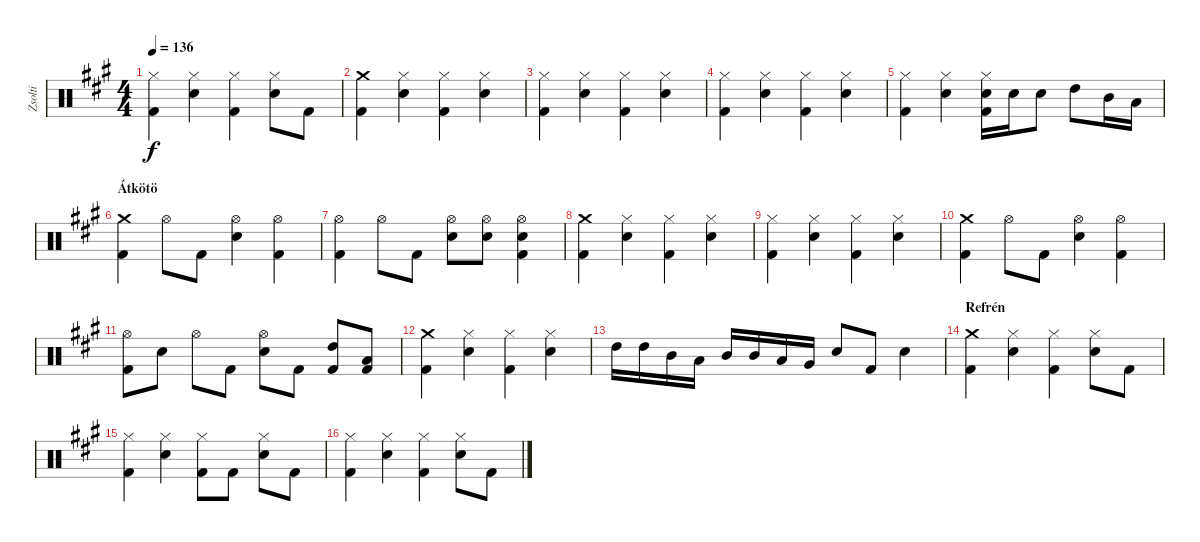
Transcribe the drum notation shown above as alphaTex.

\track ("Zsolti" "Zsolti") {instrument percussion}
\staff {score}
\articulation defaults
\ts (4 4)
\tempo 136
\clef neutral
\ks f#minor
("Hi-Hat (closed)" "Kick (hit) 2").4{dy f} ("Hi-Hat (closed)" "Snare (hit) 2").4 ("Hi-Hat (closed)" "Kick (hit) 2").4 ("Hi-Hat (closed)" "Snare (hit) 2").8 "Kick (hit) 2".8 |
("Crash medium (hit)" "Kick (hit) 2").4 ("Hi-Hat (closed)" "Snare (hit) 2").4 ("Hi-Hat (closed)" "Kick (hit) 2").4 ("Hi-Hat (closed)" "Snare (hit) 2").4 |
("Hi-Hat (closed)" "Kick (hit) 2").4 ("Hi-Hat (closed)" "Snare (hit) 2").4 ("Hi-Hat (closed)" "Kick (hit) 2").4 ("Hi-Hat (closed)" "Snare (hit) 2").4 |
("Hi-Hat (closed)" "Kick (hit) 2").4 ("Hi-Hat (closed)" "Snare (hit) 2").4 ("Hi-Hat (closed)" "Kick (hit) 2").4 ("Hi-Hat (closed)" "Snare (hit) 2").4 |
("Hi-Hat (closed)" "Kick (hit) 2").4 ("Hi-Hat (closed)" "Snare (hit) 2").4 ("Hi-Hat (closed)" "Snare (hit) 2" "Kick (hit) 2").16 "Snare (hit) 2".16 "Snare (hit) 2".8 "High Tom (hit)".8 "Mid Tom (hit)".16 "Low Tom (hit)".16 |
\section ("" "Átkötö")
("Crash medium (hit)" "Kick (hit) 2").4 "Hi-Hat (open)".8 "Kick (hit) 2".8 ("Hi-Hat (open)" "Snare (hit) 2").4 ("Hi-Hat (open)" "Kick (hit) 2").4 |
("Hi-Hat (open)" "Kick (hit) 2").4 "Hi-Hat (open)".8 "Kick (hit) 2".8 ("Hi-Hat (open)" "Snare (hit) 2").8 ("Hi-Hat (open)" "Snare (hit) 2").8 ("Hi-Hat (open)" "Snare (hit) 2" "Kick (hit) 2").4 |
("Crash medium (hit)" "Kick (hit) 2").4 ("Hi-Hat (closed)" "Snare (hit) 2").4 ("Hi-Hat (closed)" "Kick (hit) 2").4 ("Hi-Hat (closed)" "Snare (hit) 2").4 |
("Hi-Hat (closed)" "Kick (hit) 2").4 ("Hi-Hat (closed)" "Snare (hit) 2").4 ("Hi-Hat (closed)" "Kick (hit) 2").4 ("Hi-Hat (closed)" "Snare (hit) 2").4 |
("Crash medium (hit)" "Kick (hit) 2").4 "Hi-Hat (open)".8 "Kick (hit) 2".8 ("Hi-Hat (open)" "Snare (hit) 2").4 ("Hi-Hat (open)" "Kick (hit) 2").4 |
("Hi-Hat (open)" "Kick (hit) 2").8 "Snare (hit) 2".8 "Hi-Hat (open)".8 "Kick (hit) 2".8 ("Hi-Hat (open)" "Snare (hit) 2").8 "Kick (hit) 2".8 ("High Tom (hit)" "Kick (hit) 2").8 ("Low Tom (hit)" "Kick (hit) 2").8 |
("Crash medium (hit)" "Kick (hit) 2").4 ("Hi-Hat (closed)" "Snare (hit) 2").4 ("Hi-Hat (closed)" "Kick (hit) 2").4 ("Hi-Hat (closed)" "Snare (hit) 2").4 |
"High Tom (hit)".16 "High Tom (hit)".16 "Mid Tom (hit)".16 "Low Tom (hit)".16 "Mid Tom (hit)".16 "Mid Tom (hit)".16 "Low Tom (hit)".16 "Very Low Tom (hit)".16 "Snare (hit) 2".8 "Kick (hit) 2".8 "Snare (hit) 2".4 |
\section ("" "Refrén")
("Crash medium (hit)" "Kick (hit) 2").4 ("Hi-Hat (closed)" "Snare (hit) 2").4 ("Hi-Hat (closed)" "Kick (hit) 2").4 ("Hi-Hat (closed)" "Snare (hit) 2").8 "Kick (hit) 2".8 |
("Hi-Hat (closed)" "Kick (hit) 2").4 ("Hi-Hat (closed)" "Snare (hit) 2").4 ("Hi-Hat (closed)" "Kick (hit) 2").8 "Kick (hit) 2".8 ("Hi-Hat (closed)" "Snare (hit) 2").8 "Kick (hit) 2".8 |
("Hi-Hat (closed)" "Kick (hit) 2").4 ("Hi-Hat (closed)" "Snare (hit) 2").4 ("Hi-Hat (closed)" "Kick (hit) 2").4 ("Hi-Hat (closed)" "Snare (hit) 2").8 "Kick (hit) 2".8
